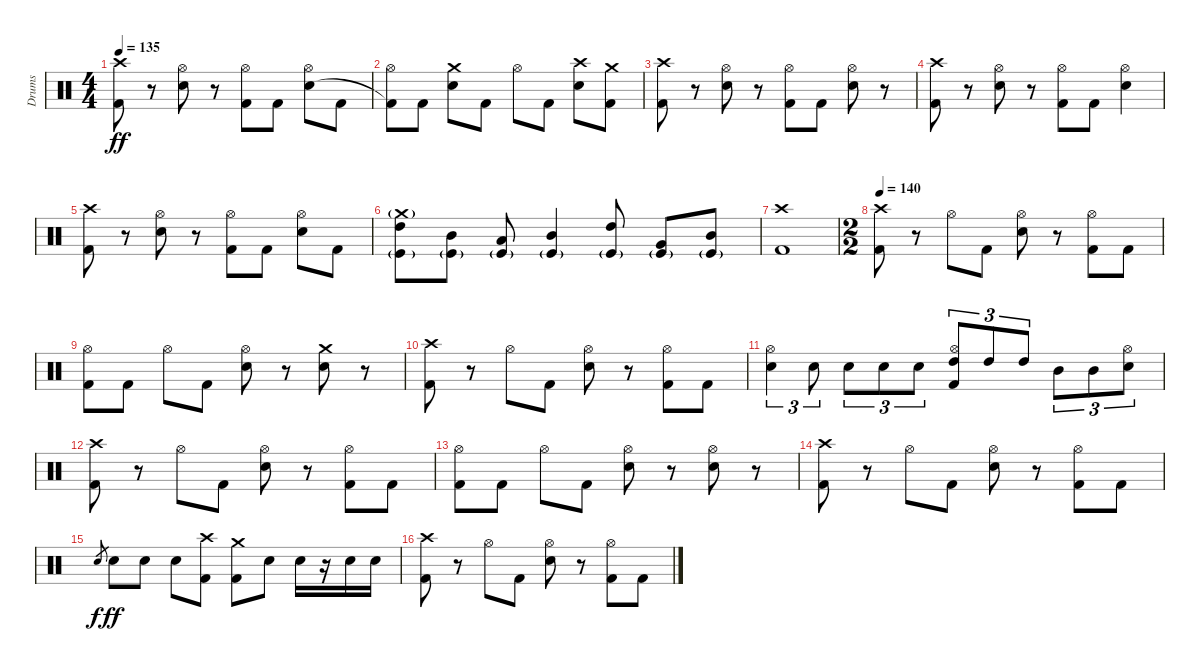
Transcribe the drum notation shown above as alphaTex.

\track ("Drums" "Drums") {instrument percussion}
\staff {score}
\articulation defaults
\ts (4 4)
\tempo 135
\clef neutral
\ks c
("Crash high (hit)" "Kick (hit) 2").8{dy ff} r.8 ("Hi-Hat (open)" "Snare (hit) 2").8 r.8 ("Hi-Hat (open)" "Kick (hit) 2").8 "Kick (hit) 2".8 ("Hi-Hat (open)" "Snare (hit) 2").8 "Kick (hit) 2".8 |
("Hi-Hat (open)" "Kick (hit) 2"{t}).8 "Kick (hit) 2".8 ("Crash medium (hit)" "Snare (hit) 2").8 "Kick (hit) 2".8 "Hi-Hat (open)".8 "Kick (hit) 2".8 ("Crash high (hit)" "Snare (hit) 2").8 ("Crash medium (hit)" "Kick (hit) 2").8 |
("Crash high (hit)" "Kick (hit) 2").8 r.8 ("Hi-Hat (open)" "Snare (hit) 2").8 r.8 ("Hi-Hat (open)" "Kick (hit) 2").8 "Kick (hit) 2".8 ("Hi-Hat (open)" "Snare (hit) 2").8 r.8 |
("Crash high (hit)" "Kick (hit) 2").8 r.8 ("Hi-Hat (open)" "Snare (hit) 2").8 r.8 ("Hi-Hat (open)" "Kick (hit) 2").8 "Kick (hit) 2".8 ("Hi-Hat (open)" "Snare (hit) 2").4 |
("Crash high (hit)" "Kick (hit) 2").8 r.8 ("Hi-Hat (open)" "Snare (hit) 2").8 r.8 ("Hi-Hat (open)" "Kick (hit) 2").8 "Kick (hit) 2".8 ("Hi-Hat (open)" "Snare (hit) 2").8 "Kick (hit) 2".8 |
("Crash medium (hit)"{g} "High Tom (hit)" "Kick (hit)"{g}).8 ("Mid Tom (hit)" "Kick (hit)"{g}).8 ("Low Tom (hit)" "Kick (hit)"{g}).8 ("Mid Tom (hit)" "Kick (hit)"{g}).4 ("High Tom (hit)" "Kick (hit)"{g}).8 ("Very Low Tom (hit)" "Kick (hit)"{g}).8 ("Mid Tom (hit)" "Kick (hit)"{g}).8 |
("Crash high (hit)" "Kick (hit) 2").1 |
\ts (2 2)
\tempo 140
("Crash high (hit)" "Kick (hit) 2").8 r.8 "Hi-Hat (open)".8 "Kick (hit) 2".8 ("Hi-Hat (open)" "Snare (hit) 2").8 r.8 ("Hi-Hat (open)" "Kick (hit) 2").8 "Kick (hit) 2".8 |
("Hi-Hat (open)" "Kick (hit) 2").8 "Kick (hit) 2".8 "Hi-Hat (open)".8 "Kick (hit) 2".8 ("Hi-Hat (open)" "Snare (hit) 2").8 r.8 ("Crash medium (hit)" "Snare (hit) 2").8 r.8 |
("Crash high (hit)" "Kick (hit) 2").8 r.8 "Hi-Hat (open)".8 "Kick (hit) 2".8 ("Hi-Hat (open)" "Snare (hit) 2").8 r.8 ("Hi-Hat (open)" "Kick (hit) 2").8 "Kick (hit) 2".8 |
("Hi-Hat (open)" "Snare (hit) 2").4{tu (3 2)} "Snare (hit) 2".8{tu (3 2)} "Snare (hit) 2".8{tu (3 2)} "Snare (hit) 2".8{tu (3 2)} "Snare (hit) 2".8{tu (3 2)} ("Hi-Hat (open)" "High Tom (hit)" "Kick (hit) 2").8{tu (3 2)} "High Tom (hit)".8{tu (3 2)} "High Tom (hit)".8{tu (3 2)} "Mid Tom (hit)".8{tu (3 2)} "Mid Tom (hit)".8{tu (3 2)} ("Hi-Hat (open)" "Snare (hit) 2").8{tu (3 2)} |
("Crash high (hit)" "Kick (hit) 2").8 r.8 "Hi-Hat (open)".8 "Kick (hit) 2".8 ("Hi-Hat (open)" "Snare (hit) 2").8 r.8 ("Hi-Hat (open)" "Kick (hit) 2").8 "Kick (hit) 2".8 |
("Hi-Hat (open)" "Kick (hit) 2").8 "Kick (hit) 2".8 "Hi-Hat (open)".8 "Kick (hit) 2".8 ("Hi-Hat (open)" "Snare (hit) 2").8 r.8 ("Hi-Hat (open)" "Snare (hit) 2").8 r.8 |
("Crash high (hit)" "Kick (hit) 2").8 r.8 "Hi-Hat (open)".8 "Kick (hit) 2".8 ("Hi-Hat (open)" "Snare (hit) 2").8 r.8 ("Hi-Hat (open)" "Kick (hit) 2").8 "Kick (hit) 2".8 |
"Snare (hit) 2".8{gr dy f} "Snare (hit) 2".8{dy ff} "Snare (hit) 2".8 "Snare (hit) 2".8 ("Crash high (hit)" "Kick (hit) 2").8 ("Crash medium (hit)" "Kick (hit) 2").8 "Snare (hit) 2".8 "Snare (hit) 2".16 r.16 "Snare (hit) 2".16 "Snare (hit) 2".16 |
("Crash high (hit)" "Kick (hit) 2").8 r.8 "Hi-Hat (open)".8 "Kick (hit) 2".8 ("Hi-Hat (open)" "Snare (hit) 2").8 r.8 ("Hi-Hat (open)" "Kick (hit) 2").8 "Kick (hit) 2".8
